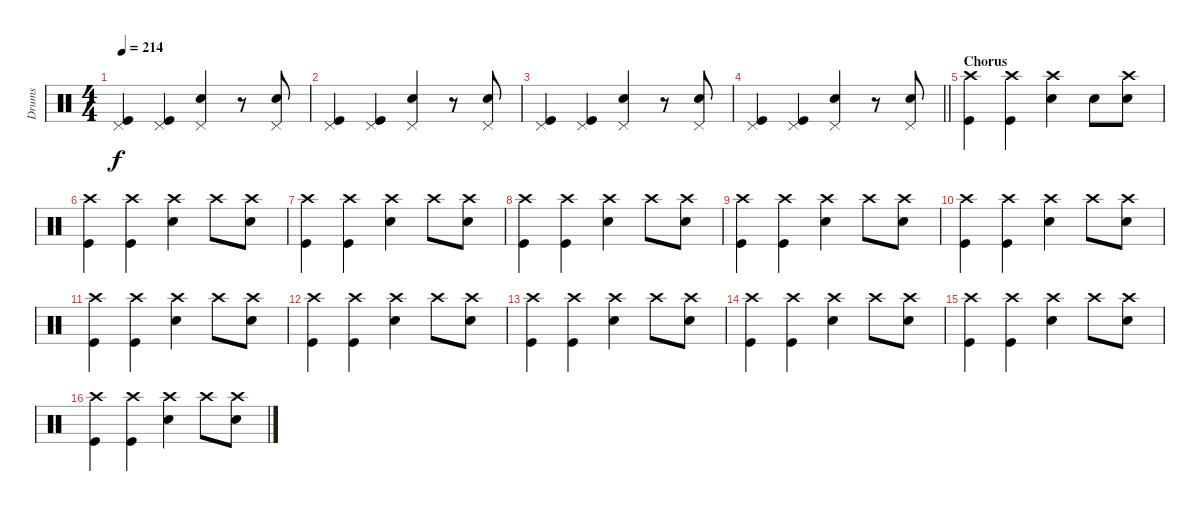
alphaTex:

\track ("Drums" "Drums") {instrument percussion}
\staff {score}
\articulation defaults
\ts (4 4)
\tempo 214
\clef neutral
\ks c
("Pedal Hi-Hat (hit)" "Kick (hit)").4{dy f} ("Pedal Hi-Hat (hit)" "Kick (hit)").4 ("Pedal Hi-Hat (hit)" "Snare (hit) 2").4 r.8 ("Pedal Hi-Hat (hit)" "Snare (hit) 2").8 |
("Pedal Hi-Hat (hit)" "Kick (hit)").4 ("Pedal Hi-Hat (hit)" "Kick (hit)").4 ("Pedal Hi-Hat (hit)" "Snare (hit) 2").4 r.8 ("Pedal Hi-Hat (hit)" "Snare (hit) 2").8 |
("Pedal Hi-Hat (hit)" "Kick (hit)").4 ("Pedal Hi-Hat (hit)" "Kick (hit)").4 ("Pedal Hi-Hat (hit)" "Snare (hit) 2").4 r.8 ("Pedal Hi-Hat (hit)" "Snare (hit) 2").8 |
\barLineRight lightlight
("Pedal Hi-Hat (hit)" "Kick (hit)").4 ("Pedal Hi-Hat (hit)" "Kick (hit)").4 ("Pedal Hi-Hat (hit)" "Snare (hit) 2").4 r.8 ("Pedal Hi-Hat (hit)" "Snare (hit) 2").8 |
\section ("" "Chorus")
("Crash high (hit)" "Kick (hit)").4 ("Crash high (hit)" "Kick (hit)").4 ("Crash high (hit)" "Snare (hit) 2").4 "Snare (hit)".8 ("Crash high (hit)" "Snare (hit) 2").8 |
("Crash high (hit)" "Kick (hit)").4 ("Crash high (hit)" "Kick (hit)").4 ("Crash high (hit)" "Snare (hit) 2").4 "Crash high (hit)".8 ("Crash high (hit)" "Snare (hit) 2").8 |
("Crash high (hit)" "Kick (hit)").4 ("Crash high (hit)" "Kick (hit)").4 ("Crash high (hit)" "Snare (hit) 2").4 "Crash high (hit)".8 ("Crash high (hit)" "Snare (hit) 2").8 |
("Crash high (hit)" "Kick (hit)").4 ("Crash high (hit)" "Kick (hit)").4 ("Crash high (hit)" "Snare (hit) 2").4 "Crash high (hit)".8 ("Crash high (hit)" "Snare (hit) 2").8 |
("Crash high (hit)" "Kick (hit)").4 ("Crash high (hit)" "Kick (hit)").4 ("Crash high (hit)" "Snare (hit) 2").4 "Crash high (hit)".8 ("Crash high (hit)" "Snare (hit) 2").8 |
("Crash high (hit)" "Kick (hit)").4 ("Crash high (hit)" "Kick (hit)").4 ("Crash high (hit)" "Snare (hit) 2").4 "Crash high (hit)".8 ("Crash high (hit)" "Snare (hit) 2").8 |
("Crash high (hit)" "Kick (hit)").4 ("Crash high (hit)" "Kick (hit)").4 ("Crash high (hit)" "Snare (hit) 2").4 "Crash high (hit)".8 ("Crash high (hit)" "Snare (hit) 2").8 |
("Crash high (hit)" "Kick (hit)").4 ("Crash high (hit)" "Kick (hit)").4 ("Crash high (hit)" "Snare (hit) 2").4 "Crash high (hit)".8 ("Crash high (hit)" "Snare (hit) 2").8 |
("Crash high (hit)" "Kick (hit)").4 ("Crash high (hit)" "Kick (hit)").4 ("Crash high (hit)" "Snare (hit) 2").4 "Crash high (hit)".8 ("Crash high (hit)" "Snare (hit) 2").8 |
("Crash high (hit)" "Kick (hit)").4 ("Crash high (hit)" "Kick (hit)").4 ("Crash high (hit)" "Snare (hit) 2").4 "Crash high (hit)".8 ("Crash high (hit)" "Snare (hit) 2").8 |
("Crash high (hit)" "Kick (hit)").4 ("Crash high (hit)" "Kick (hit)").4 ("Crash high (hit)" "Snare (hit) 2").4 "Crash high (hit)".8 ("Crash high (hit)" "Snare (hit) 2").8 |
("Crash high (hit)" "Kick (hit)").4 ("Crash high (hit)" "Kick (hit)").4 ("Crash high (hit)" "Snare (hit) 2").4 "Crash high (hit)".8 ("Crash high (hit)" "Snare (hit) 2").8
